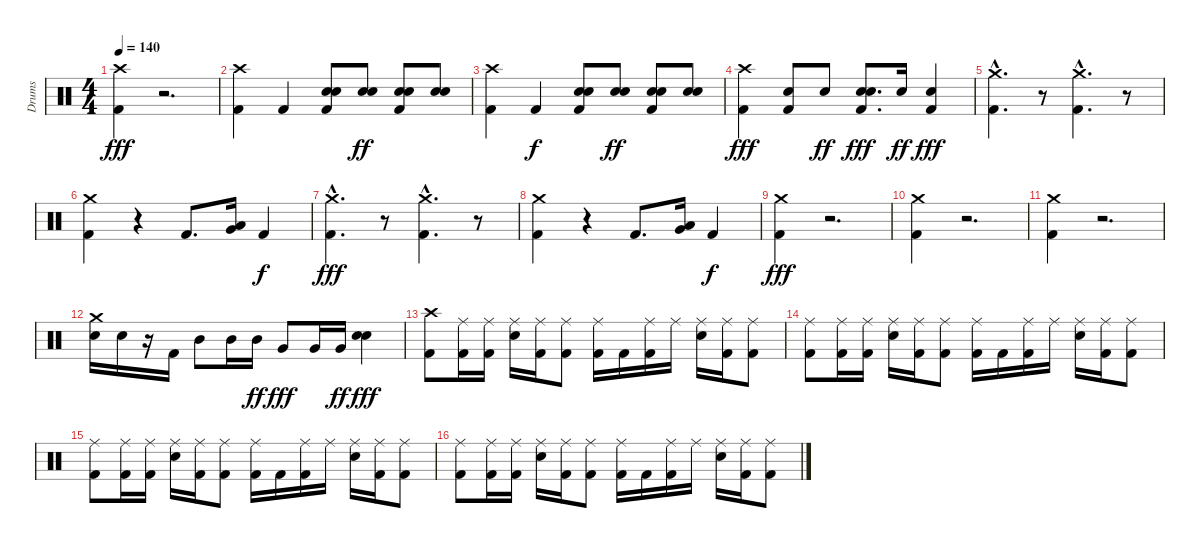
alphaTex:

\track ("Drums" "Drums") {instrument percussion}
\staff {score}
\articulation defaults
\ts (4 4)
\tempo 140
\clef neutral
\ks c
("Kick (hit) 2" "Crash high (hit)").4{dy fff} r.2{d} |
("Kick (hit) 2" "Crash high (hit)").4 "Kick (hit) 2".4 ("Snare (hit) 2" "Electric Snare (hit)" "Kick (hit) 2").8 ("Snare (hit) 2" "Electric Snare (hit)").8{dy ff} ("Kick (hit) 2" "Electric Snare (hit)" "Snare (hit) 2").8 ("Snare (hit) 2" "Electric Snare (hit)").8 |
("Kick (hit) 2" "Crash high (hit)").4 "Kick (hit) 2".4{dy f} ("Snare (hit) 2" "Electric Snare (hit)" "Kick (hit) 2").8 ("Snare (hit) 2" "Electric Snare (hit)").8{dy ff} ("Electric Snare (hit)" "Snare (hit) 2" "Kick (hit) 2").8 ("Snare (hit) 2" "Electric Snare (hit)").8 |
("Kick (hit) 2" "Crash high (hit)").4{dy fff} ("Electric Snare (hit)" "Kick (hit) 2").8 "Electric Snare (hit)".8{dy ff} ("Snare (hit) 2" "Electric Snare (hit)" "Kick (hit) 2").8{d dy fff} "Snare (hit) 2".16{dy ff} ("Electric Snare (hit)" "Kick (hit) 2").4{dy fff} |
("Kick (hit) 2" "Crash medium (hit)"{hac}).4{d} r.8 ("Kick (hit) 2" "Crash medium (hit)"{hac}).4{d} r.8 |
("Kick (hit) 2" "Crash medium (hit)").4 r.4 "Kick (hit) 2".8{d} ("Low Tom (hit)" "Very Low Tom (hit)").16 "Kick (hit) 2".4{dy f} |
("Kick (hit) 2" "Crash medium (hit)"{hac}).4{d dy fff} r.8 ("Kick (hit) 2" "Crash medium (hit)"{hac}).4{d} r.8 |
("Kick (hit) 2" "Crash medium (hit)").4 r.4 "Kick (hit) 2".8{d} ("Low Tom (hit)" "Very Low Tom (hit)").16 "Kick (hit) 2".4{dy f} |
("Kick (hit) 2" "Crash medium (hit)").4{dy fff} r.2{d} |
("Kick (hit) 2" "Crash medium (hit)").4 r.2{d} |
("Kick (hit) 2" "Crash medium (hit)").4 r.2{d} |
("Electric Snare (hit)" "Crash medium (hit)").16 "Electric Snare (hit)".16 r.16 "Kick (hit) 2".16 "Mid Tom (hit)".8 "Mid Tom (hit)".16 "Mid Tom (hit)".16{dy ff} "Very Low Tom (hit)".8{dy fff} "Very Low Tom (hit)".16 "Very Low Tom (hit)".16{dy ff} ("Snare (hit) 2" "Electric Snare (hit)").4{dy fff} |
("Kick (hit) 2" "Crash high (hit)").8 ("Ride (middle)" "Kick (hit) 2").16 ("Ride (middle)" "Kick (hit) 2").16 ("Ride (middle)" "Electric Snare (hit)").16 ("Ride (middle)" "Kick (hit) 2").16 ("Ride (middle)" "Kick (hit) 2").8 ("Ride (middle)" "Kick (hit) 2").16 "Kick (hit) 2".16 ("Ride (middle)" "Kick (hit) 2").16 "Ride (middle)".16 ("Ride (middle)" "Electric Snare (hit)").16 ("Ride (middle)" "Kick (hit) 2").16 ("Ride (middle)" "Kick (hit) 2").8 |
("Ride (middle)" "Kick (hit) 2").8 ("Ride (middle)" "Kick (hit) 2").16 ("Ride (middle)" "Kick (hit) 2").16 ("Ride (middle)" "Electric Snare (hit)").16 ("Ride (middle)" "Kick (hit) 2").16 ("Ride (middle)" "Kick (hit) 2").8 ("Ride (middle)" "Kick (hit) 2").16 "Kick (hit) 2".16 ("Ride (middle)" "Kick (hit) 2").16 "Ride (middle)".16 ("Ride (middle)" "Electric Snare (hit)").16 ("Ride (middle)" "Kick (hit) 2").16 ("Ride (middle)" "Kick (hit) 2").8 |
("Ride (middle)" "Kick (hit) 2").8 ("Ride (middle)" "Kick (hit) 2").16 ("Ride (middle)" "Kick (hit) 2").16 ("Ride (middle)" "Electric Snare (hit)").16 ("Ride (middle)" "Kick (hit) 2").16 ("Ride (middle)" "Kick (hit) 2").8 ("Ride (middle)" "Kick (hit) 2").16 "Kick (hit) 2".16 ("Ride (middle)" "Kick (hit) 2").16 "Ride (middle)".16 ("Ride (middle)" "Electric Snare (hit)").16 ("Ride (middle)" "Kick (hit) 2").16 ("Ride (middle)" "Kick (hit) 2").8 |
("Ride (middle)" "Kick (hit) 2").8 ("Ride (middle)" "Kick (hit) 2").16 ("Ride (middle)" "Kick (hit) 2").16 ("Ride (middle)" "Electric Snare (hit)").16 ("Ride (middle)" "Kick (hit) 2").16 ("Ride (middle)" "Kick (hit) 2").8 ("Ride (middle)" "Kick (hit) 2").16 "Kick (hit) 2".16 ("Ride (middle)" "Kick (hit) 2").16 "Ride (middle)".16 ("Ride (middle)" "Electric Snare (hit)").16 ("Ride (middle)" "Kick (hit) 2").16 ("Ride (middle)" "Kick (hit) 2").8
